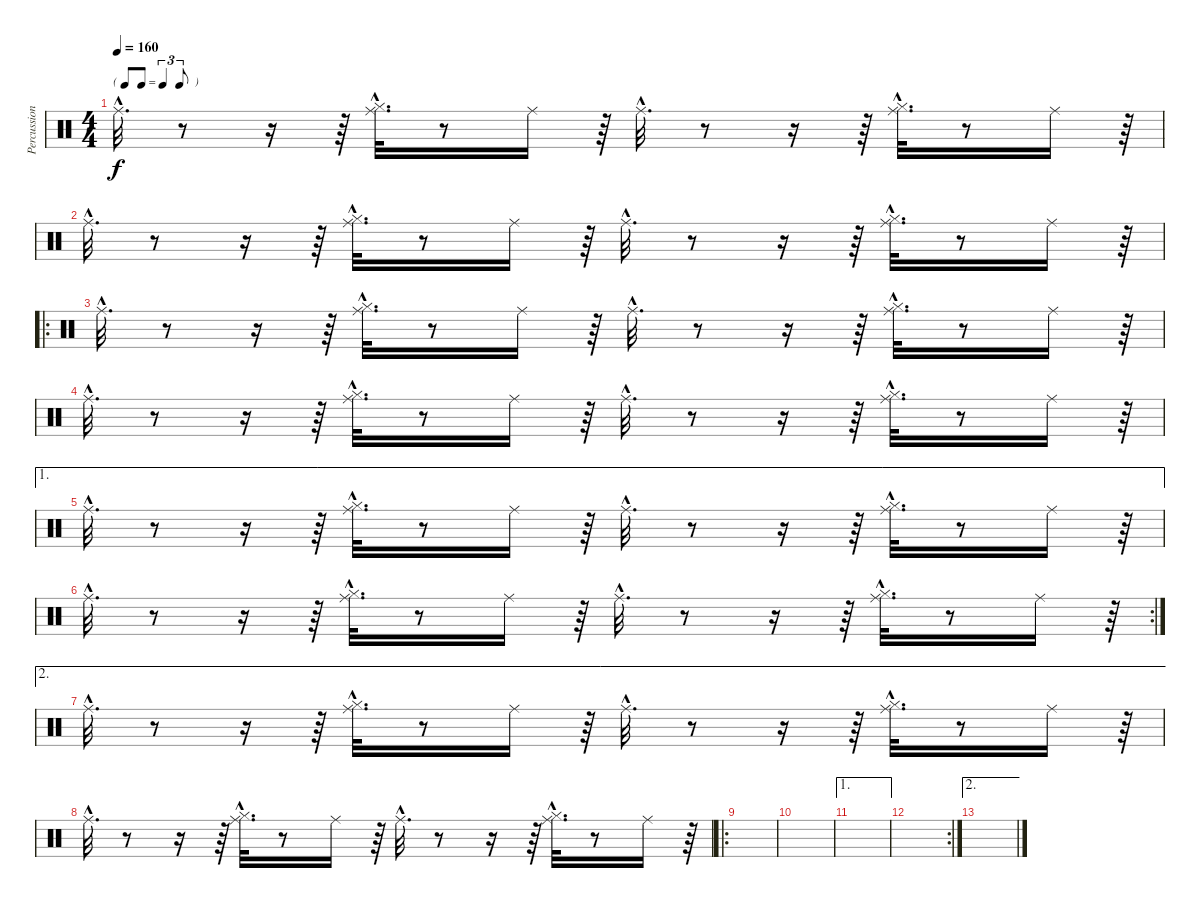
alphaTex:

\track ("Percussions" "Percussion") {instrument percussion}
\staff {score}
\articulation defaults
\ts (4 4)
\tf triplet8th
\tempo 160
\clef neutral
\ks c "Ride (middle)"{hac}.32{d dy f}
r.8 r.16 r.64 ("Hi-Hat (closed)"{hac} "Ride (middle)"{hac}).32{d} r.8 "Ride (middle)".16 r.64 "Ride (middle)"{hac}.32{d} r.8 r.16 r.64 ("Hi-Hat (closed)"{hac} "Ride (middle)"{hac}).32{d} r.8 "Ride (middle)".16 r.64 |
"Ride (middle)"{hac}.32{d} r.8 r.16 r.64 ("Hi-Hat (closed)"{hac} "Ride (middle)"{hac}).32{d} r.8 "Ride (middle)".16 r.64 "Ride (middle)"{hac}.32{d} r.8 r.16 r.64 ("Hi-Hat (closed)"{hac} "Ride (middle)"{hac}).32{d} r.8 "Ride (middle)".16 r.64 |
\ro "Ride (middle)"{hac}.32{d}
r.8 r.16 r.64 ("Hi-Hat (closed)"{hac} "Ride (middle)"{hac}).32{d} r.8 "Ride (middle)".16 r.64 "Ride (middle)"{hac}.32{d} r.8 r.16 r.64 ("Hi-Hat (closed)"{hac} "Ride (middle)"{hac}).32{d} r.8 "Ride (middle)".16 r.64 |
"Ride (middle)"{hac}.32{d} r.8 r.16 r.64 ("Hi-Hat (closed)"{hac} "Ride (middle)"{hac}).32{d} r.8 "Ride (middle)".16 r.64 "Ride (middle)"{hac}.32{d} r.8 r.16 r.64 ("Hi-Hat (closed)"{hac} "Ride (middle)"{hac}).32{d} r.8 "Ride (middle)".16 r.64 |
\ae 1 "Ride (middle)"{hac}.32{d}
r.8 r.16 r.64 ("Hi-Hat (closed)"{hac} "Ride (middle)"{hac}).32{d} r.8 "Ride (middle)".16 r.64 "Ride (middle)"{hac}.32{d} r.8 r.16 r.64 ("Hi-Hat (closed)"{hac} "Ride (middle)"{hac}).32{d} r.8 "Ride (middle)".16 r.64 |
\rc 2 "Ride (middle)"{hac}.32{d}
r.8 r.16 r.64 ("Hi-Hat (closed)"{hac} "Ride (middle)"{hac}).32{d} r.8 "Ride (middle)".16 r.64 "Ride (middle)"{hac}.32{d} r.8 r.16 r.64 ("Hi-Hat (closed)"{hac} "Ride (middle)"{hac}).32{d} r.8 "Ride (middle)".16 r.64 |
\ae 2 "Ride (middle)"{hac}.32{d}
r.8 r.16 r.64 ("Hi-Hat (closed)"{hac} "Ride (middle)"{hac}).32{d} r.8 "Ride (middle)".16 r.64 "Ride (middle)"{hac}.32{d} r.8 r.16 r.64 ("Hi-Hat (closed)"{hac} "Ride (middle)"{hac}).32{d} r.8 "Ride (middle)".16 r.64 |
"Ride (middle)"{hac}.32{d} r.8 r.16 r.64 ("Hi-Hat (closed)"{hac} "Ride (middle)"{hac}).32{d} r.8 "Ride (middle)".16 r.64 "Ride (middle)"{hac}.32{d} r.8 r.16 r.64 ("Hi-Hat (closed)"{hac} "Ride (middle)"{hac}).32{d} r.8 "Ride (middle)".16 r.64 |
\ro
|
|
\ae 1
|
\rc 2
|
\ae 2
